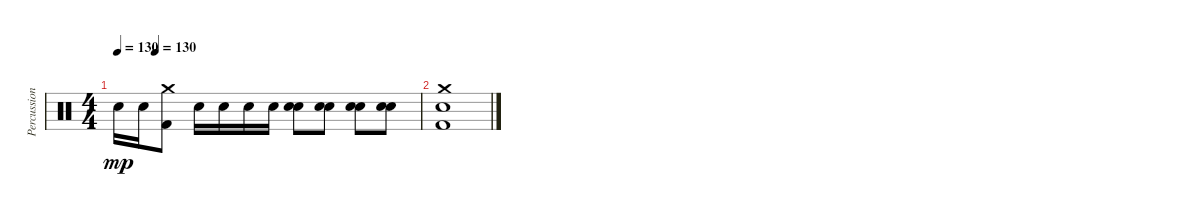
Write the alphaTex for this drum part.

\track ("Percussion" "Percussion") {instrument percussion}
\staff {score}
\articulation defaults
\ts (4 4)
\tempo 130
\tempo (130 0.125)
\clef neutral
\ks c "Electric Snare (hit)".16{dy mp} "Electric Snare (hit)".16
("Crash medium (hit)" "Kick (hit) 2").8 "Electric Snare (hit)".16 "Electric Snare (hit)".16 "Electric Snare (hit)".16 "Electric Snare (hit)".16 ("Electric Snare (hit)" "Electric Snare (hit)").8 ("Electric Snare (hit)" "Electric Snare (hit)").8 ("Electric Snare (hit)" "Electric Snare (hit)").8 ("Electric Snare (hit)" "Electric Snare (hit)").8 |
("Crash medium (hit)" "Electric Snare (hit)" "Kick (hit) 2").1
